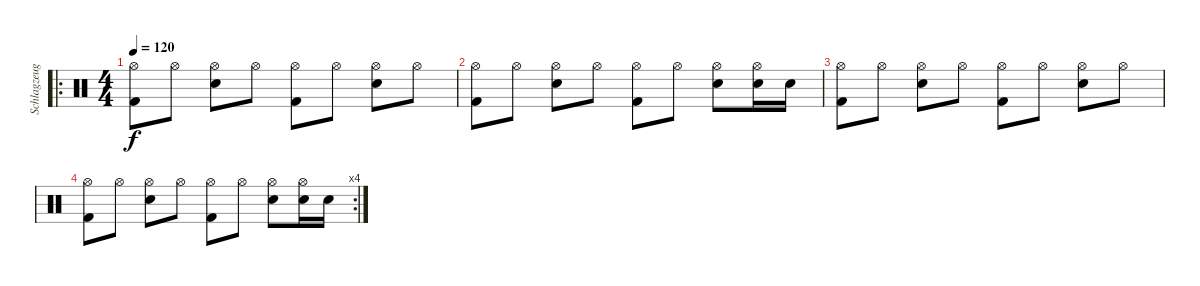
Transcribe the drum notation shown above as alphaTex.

\track ("Schlagzeug" "Schlagzeug") {instrument percussion}
\staff {score}
\articulation defaults
\ro
\ts (4 4)
\tempo 120
\clef neutral
\ks c
("Hi-Hat (open)" "Kick (hit) 2").8{dy f} "Hi-Hat (open)".8 ("Hi-Hat (open)" "Snare (hit) 2").8 "Hi-Hat (open)".8 ("Hi-Hat (open)" "Kick (hit) 2").8 "Hi-Hat (open)".8 ("Hi-Hat (open)" "Snare (hit) 2").8 "Hi-Hat (open)".8 |
("Hi-Hat (open)" "Kick (hit) 2").8 "Hi-Hat (open)".8 ("Hi-Hat (open)" "Snare (hit) 2").8 "Hi-Hat (open)".8 ("Hi-Hat (open)" "Kick (hit) 2").8 "Hi-Hat (open)".8 ("Hi-Hat (open)" "Snare (hit) 2").8 ("Hi-Hat (open)" "Snare (hit) 2").16 "Snare (hit) 2".16 |
("Hi-Hat (open)" "Kick (hit) 2").8 "Hi-Hat (open)".8 ("Hi-Hat (open)" "Snare (hit) 2").8 "Hi-Hat (open)".8 ("Hi-Hat (open)" "Kick (hit) 2").8 "Hi-Hat (open)".8 ("Hi-Hat (open)" "Snare (hit) 2").8 "Hi-Hat (open)".8 |
\rc 4
("Hi-Hat (open)" "Kick (hit) 2").8 "Hi-Hat (open)".8 ("Hi-Hat (open)" "Snare (hit) 2").8 "Hi-Hat (open)".8 ("Hi-Hat (open)" "Kick (hit) 2").8 "Hi-Hat (open)".8 ("Hi-Hat (open)" "Snare (hit) 2").8 ("Hi-Hat (open)" "Snare (hit) 2").16 "Snare (hit) 2".16
